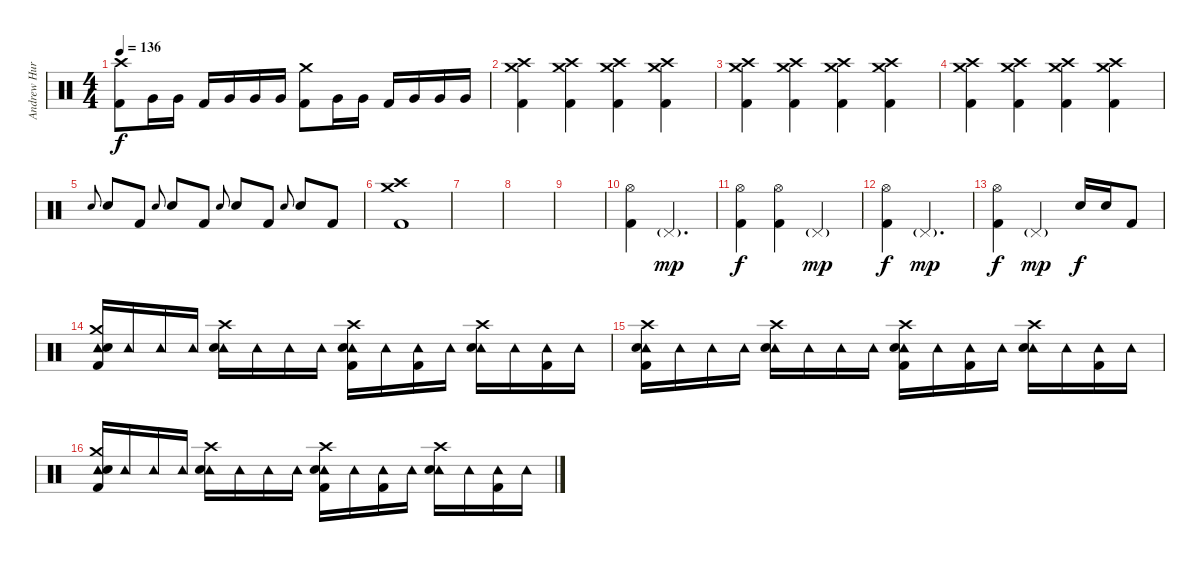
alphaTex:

\track ("Andrew Hurley (Drums)" "Andrew Hur") {instrument percussion}
\staff {score}
\articulation defaults
\ts (4 4)
\tempo 136
\clef neutral
\ks c
("Crash high (hit)" "Kick (hit) 2").8{dy f} "Very Low Tom (hit)".16 "Very Low Tom (hit)".16 "Kick (hit) 2".16 "Very Low Tom (hit)".16 "Very Low Tom (hit)".16 "Very Low Tom (hit)".16 ("Crash medium (hit)" "Kick (hit) 2").8 "Very Low Tom (hit)".16 "Very Low Tom (hit)".16 "Kick (hit) 2".16 "Very Low Tom (hit)".16 "Very Low Tom (hit)".16 "Very Low Tom (hit)".16 |
("Crash high (hit)" "Crash medium (hit)" "Kick (hit) 2").4 ("Crash high (hit)" "Crash medium (hit)" "Kick (hit) 2").4 ("Crash high (hit)" "Crash medium (hit)" "Kick (hit) 2").4 ("Crash high (hit)" "Crash medium (hit)" "Kick (hit) 2").4 |
("Crash high (hit)" "Crash medium (hit)" "Kick (hit) 2").4 ("Crash high (hit)" "Crash medium (hit)" "Kick (hit) 2").4 ("Crash high (hit)" "Crash medium (hit)" "Kick (hit) 2").4 ("Crash high (hit)" "Crash medium (hit)" "Kick (hit) 2").4 |
("Crash high (hit)" "Crash medium (hit)" "Kick (hit) 2").4 ("Crash high (hit)" "Crash medium (hit)" "Kick (hit) 2").4 ("Crash high (hit)" "Crash medium (hit)" "Kick (hit) 2").4 ("Crash high (hit)" "Crash medium (hit)" "Kick (hit) 2").4 |
"Snare (hit) 2".8{gr onbeat} "Snare (hit) 2".8 "Kick (hit) 2".8 "Snare (hit) 2".8{gr onbeat} "Snare (hit) 2".8 "Kick (hit) 2".8 "Snare (hit) 2".8{gr onbeat} "Snare (hit) 2".8 "Kick (hit) 2".8 "Snare (hit) 2".8{gr onbeat} "Snare (hit) 2".8 "Kick (hit) 2".8 |
("Crash high (hit)" "Crash medium (hit)" "Kick (hit) 2").1 |
|
|
|
("Hi-Hat (open)" "Kick (hit) 2").4 "Pedal Hi-Hat (hit)"{g}.2{d dy mp} |
("Hi-Hat (open)" "Kick (hit) 2").4{dy f} ("Hi-Hat (open)" "Kick (hit) 2").4 "Pedal Hi-Hat (hit)"{g}.2{dy mp} |
("Hi-Hat (open)" "Kick (hit) 2").4{dy f} "Pedal Hi-Hat (hit)"{g}.2{d dy mp} |
("Hi-Hat (open)" "Kick (hit) 2").4{dy f} "Pedal Hi-Hat (hit)"{g}.2{dy mp} "Snare (hit) 2".16{dy f} "Snare (hit) 2".16 "Kick (hit) 2".8 |
("Crash medium (hit)" "Tambourine (hit)" "Snare (hit) 2" "Kick (hit) 2").16 "Tambourine (hit)".16 "Tambourine (hit)".16 "Tambourine (hit)".16 ("Crash high (hit)" "Tambourine (hit)" "Snare (hit) 2").16 "Tambourine (hit)".16 "Tambourine (hit)".16 "Tambourine (hit)".16 ("Crash high (hit)" "Tambourine (hit)" "Snare (hit) 2" "Kick (hit) 2").16 "Tambourine (hit)".16 ("Tambourine (hit)" "Kick (hit) 2").16 "Tambourine (hit)".16 ("Crash high (hit)" "Tambourine (hit)" "Snare (hit) 2").16 "Tambourine (hit)".16 ("Tambourine (hit)" "Kick (hit) 2").16 "Tambourine (hit)".16 |
("Crash high (hit)" "Tambourine (hit)" "Snare (hit) 2" "Kick (hit) 2").16 "Tambourine (hit)".16 "Tambourine (hit)".16 "Tambourine (hit)".16 ("Crash high (hit)" "Tambourine (hit)" "Snare (hit) 2").16 "Tambourine (hit)".16 "Tambourine (hit)".16 "Tambourine (hit)".16 ("Crash high (hit)" "Tambourine (hit)" "Snare (hit) 2" "Kick (hit) 2").16 "Tambourine (hit)".16 ("Tambourine (hit)" "Kick (hit) 2").16 "Tambourine (hit)".16 ("Crash high (hit)" "Tambourine (hit)" "Snare (hit) 2").16 "Tambourine (hit)".16 ("Tambourine (hit)" "Kick (hit) 2").16 "Tambourine (hit)".16 |
("Crash medium (hit)" "Tambourine (hit)" "Snare (hit) 2" "Kick (hit) 2").16 "Tambourine (hit)".16 "Tambourine (hit)".16 "Tambourine (hit)".16 ("Crash high (hit)" "Tambourine (hit)" "Snare (hit) 2").16 "Tambourine (hit)".16 "Tambourine (hit)".16 "Tambourine (hit)".16 ("Crash high (hit)" "Tambourine (hit)" "Snare (hit) 2" "Kick (hit) 2").16 "Tambourine (hit)".16 ("Tambourine (hit)" "Kick (hit) 2").16 "Tambourine (hit)".16 ("Crash high (hit)" "Tambourine (hit)" "Snare (hit) 2").16 "Tambourine (hit)".16 ("Tambourine (hit)" "Kick (hit) 2").16 "Tambourine (hit)".16
